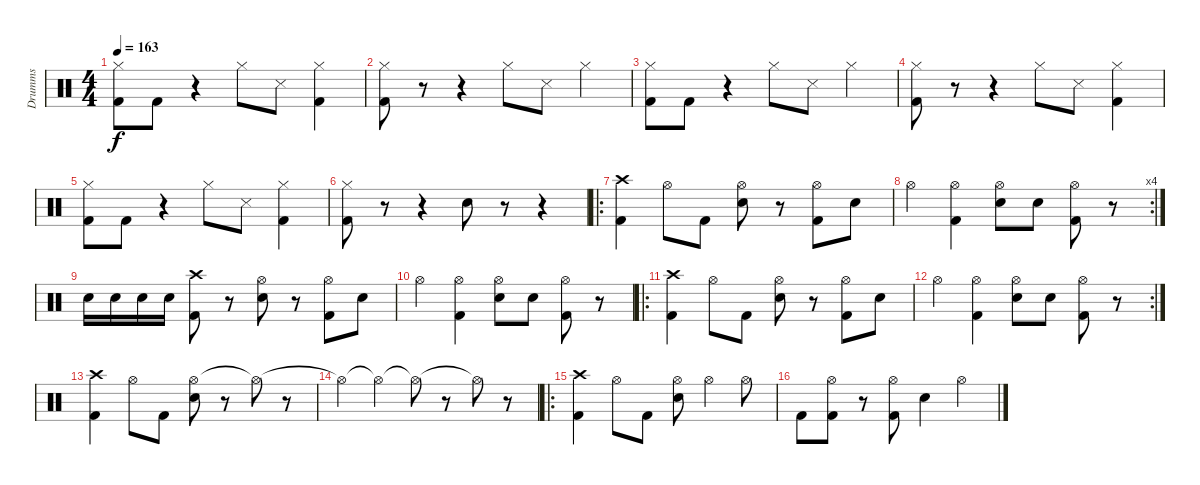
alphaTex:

\track ("Drumms" "Drumms") {instrument percussion}
\staff {score}
\articulation defaults
\ts (4 4)
\tempo 163
\clef neutral
\ks c
("Hi-Hat (closed)" "Kick (hit) 2").8{dy f} "Kick (hit) 2".8 r.4 "Hi-Hat (closed)".8 "Snare (side stick) 3".8 ("Hi-Hat (closed)" "Kick (hit) 2").4 |
("Hi-Hat (closed)" "Kick (hit) 2").8 r.8 r.4 "Hi-Hat (closed)".8 "Snare (side stick) 3".8 "Hi-Hat (closed)".4 |
("Hi-Hat (closed)" "Kick (hit) 2").8 "Kick (hit) 2".8 r.4 "Hi-Hat (closed)".8 "Snare (side stick) 3".8 "Hi-Hat (closed)".4 |
("Hi-Hat (closed)" "Kick (hit) 2").8 r.8 r.4 "Hi-Hat (closed)".8 "Snare (side stick) 3".8 ("Hi-Hat (closed)" "Kick (hit) 2").4 |
("Hi-Hat (closed)" "Kick (hit) 2").8 "Kick (hit) 2".8 r.4 "Hi-Hat (closed)".8 "Snare (side stick) 3".8 ("Hi-Hat (closed)" "Kick (hit) 2").4 |
("Hi-Hat (closed)" "Kick (hit) 2").8 r.8 r.4 "Snare (hit) 2".8 r.8 r.4 |
\ro
("Crash high (hit)" "Kick (hit) 2").4 "Hi-Hat (open)".8 "Kick (hit) 2".8 ("Hi-Hat (open)" "Snare (hit) 2").8 r.8 ("Hi-Hat (open)" "Kick (hit) 2").8 "Snare (hit) 2".8 |
\rc 4 "Hi-Hat (open)".4
("Hi-Hat (open)" "Kick (hit) 2").4 ("Hi-Hat (open)" "Snare (hit) 2").8 "Snare (hit) 2".8 ("Hi-Hat (open)" "Kick (hit) 2").8 r.8 |
"Snare (hit) 2".16 "Snare (hit) 2".16 "Snare (hit) 2".16 "Snare (hit) 2".16 ("Crash high (hit)" "Kick (hit) 2").8 r.8 ("Hi-Hat (open)" "Snare (hit) 2").8 r.8 ("Hi-Hat (open)" "Kick (hit) 2").8 "Snare (hit) 2".8 |
"Hi-Hat (open)".4 ("Hi-Hat (open)" "Kick (hit) 2").4 ("Hi-Hat (open)" "Snare (hit) 2").8 "Snare (hit) 2".8 ("Hi-Hat (open)" "Kick (hit) 2").8 r.8 |
\ro
("Crash high (hit)" "Kick (hit) 2").4 "Hi-Hat (open)".8 "Kick (hit) 2".8 ("Hi-Hat (open)" "Snare (hit) 2").8 r.8 ("Hi-Hat (open)" "Kick (hit) 2").8 "Snare (hit) 2".8 |
\rc 2 "Hi-Hat (open)".4
("Hi-Hat (open)" "Kick (hit) 2").4 ("Hi-Hat (open)" "Snare (hit) 2").8 "Snare (hit) 2".8 ("Hi-Hat (open)" "Kick (hit) 2").8 r.8 |
("Crash high (hit)" "Kick (hit) 2").4 "Hi-Hat (open)".8 "Kick (hit) 2".8 ("Hi-Hat (open)" "Snare (hit) 2").8 r.8 "Hi-Hat (open)"{t}.8 r.8 |
"Hi-Hat (open)"{t}.4 "Hi-Hat (open)"{t}.4 "Hi-Hat (open)"{t}.8 r.8 "Hi-Hat (open)"{t}.8 r.8 |
\ro
("Crash high (hit)" "Kick (hit) 2").4 "Hi-Hat (open)".8 "Kick (hit) 2".8 ("Hi-Hat (open)" "Snare (hit) 2").8 "Hi-Hat (open)".4 "Hi-Hat (open)".8 |
"Kick (hit) 2".8 ("Hi-Hat (open)" "Kick (hit) 2").8 r.8 ("Hi-Hat (open)" "Kick (hit) 2").8 "Snare (hit) 2".4 "Hi-Hat (open)".4
